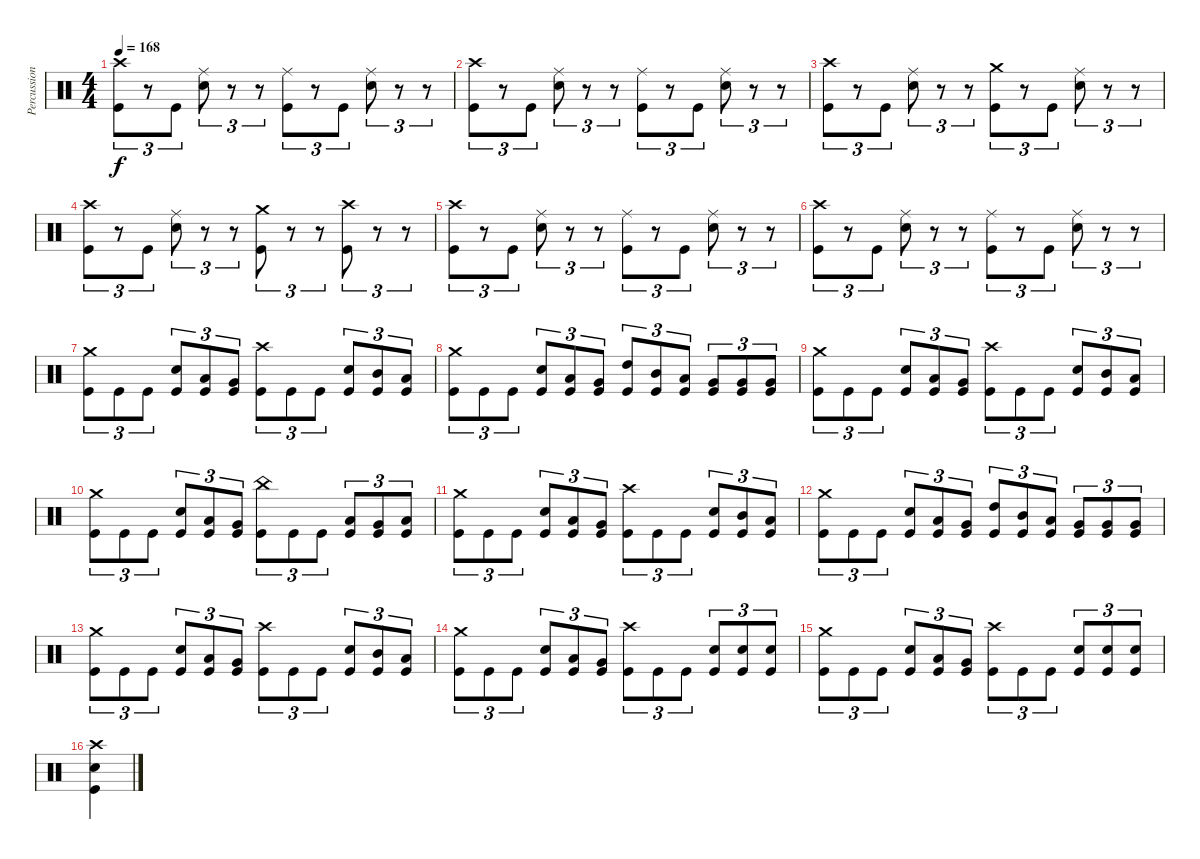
\track ("Percussion" "Percussion") {instrument percussion}
\staff {score}
\articulation defaults
\ts (4 4)
\tempo 168
\clef neutral
\ks c
("Crash high (hit)" "Kick (hit)").8{tu (3 2) dy f} r.8{tu (3 2)} "Kick (hit)".8{tu (3 2)} ("Ride (middle)" "Electric Snare (hit)").8{tu (3 2)} r.8{tu (3 2)} r.8{tu (3 2)} ("Ride (middle)" "Kick (hit)").8{tu (3 2)} r.8{tu (3 2)} "Kick (hit)".8{tu (3 2)} ("Ride (middle)" "Electric Snare (hit)").8{tu (3 2)} r.8{tu (3 2)} r.8{tu (3 2)} |
("Crash high (hit)" "Kick (hit)").8{tu (3 2)} r.8{tu (3 2)} "Kick (hit)".8{tu (3 2)} ("Ride (middle)" "Electric Snare (hit)").8{tu (3 2)} r.8{tu (3 2)} r.8{tu (3 2)} ("Ride (middle)" "Kick (hit)").8{tu (3 2)} r.8{tu (3 2)} "Kick (hit)".8{tu (3 2)} ("Ride (middle)" "Electric Snare (hit)").8{tu (3 2)} r.8{tu (3 2)} r.8{tu (3 2)} |
("Crash high (hit)" "Kick (hit)").8{tu (3 2)} r.8{tu (3 2)} "Kick (hit)".8{tu (3 2)} ("Ride (middle)" "Electric Snare (hit)").8{tu (3 2)} r.8{tu (3 2)} r.8{tu (3 2)} ("Crash medium (hit)" "Kick (hit)").8{tu (3 2)} r.8{tu (3 2)} "Kick (hit)".8{tu (3 2)} ("Ride (middle)" "Electric Snare (hit)").8{tu (3 2)} r.8{tu (3 2)} r.8{tu (3 2)} |
("Crash high (hit)" "Kick (hit)").8{tu (3 2)} r.8{tu (3 2)} "Kick (hit)".8{tu (3 2)} ("Ride (middle)" "Electric Snare (hit)").8{tu (3 2)} r.8{tu (3 2)} r.8{tu (3 2)} ("Crash medium (hit)" "Kick (hit)").8{tu (3 2)} r.8{tu (3 2)} r.8{tu (3 2)} ("Crash high (hit)" "Kick (hit)").8{tu (3 2)} r.8{tu (3 2)} r.8{tu (3 2)} |
("Crash high (hit)" "Kick (hit)").8{tu (3 2)} r.8{tu (3 2)} "Kick (hit)".8{tu (3 2)} ("Ride (middle)" "Electric Snare (hit)").8{tu (3 2)} r.8{tu (3 2)} r.8{tu (3 2)} ("Ride (middle)" "Kick (hit)").8{tu (3 2)} r.8{tu (3 2)} "Kick (hit)".8{tu (3 2)} ("Ride (middle)" "Electric Snare (hit)").8{tu (3 2)} r.8{tu (3 2)} r.8{tu (3 2)} |
("Crash high (hit)" "Kick (hit)").8{tu (3 2)} r.8{tu (3 2)} "Kick (hit)".8{tu (3 2)} ("Ride (middle)" "Electric Snare (hit)").8{tu (3 2)} r.8{tu (3 2)} r.8{tu (3 2)} ("Ride (middle)" "Kick (hit)").8{tu (3 2)} r.8{tu (3 2)} "Kick (hit)".8{tu (3 2)} ("Ride (middle)" "Electric Snare (hit)").8{tu (3 2)} r.8{tu (3 2)} r.8{tu (3 2)} |
("Crash medium (hit)" "Kick (hit)").8{tu (3 2)} "Kick (hit)".8{tu (3 2)} "Kick (hit)".8{tu (3 2)} ("Electric Snare (hit)" "Kick (hit)").8{tu (3 2)} ("Low Tom (hit)" "Kick (hit)").8{tu (3 2)} ("Very Low Tom (hit)" "Kick (hit)").8{tu (3 2)} ("Crash high (hit)" "Kick (hit)").8{tu (3 2)} "Kick (hit)".8{tu (3 2)} "Kick (hit)".8{tu (3 2)} ("Electric Snare (hit)" "Kick (hit)").8{tu (3 2)} ("Mid Tom (hit)" "Kick (hit)").8{tu (3 2)} ("Low Tom (hit)" "Kick (hit)").8{tu (3 2)} |
("Crash medium (hit)" "Kick (hit)").8{tu (3 2)} "Kick (hit)".8{tu (3 2)} "Kick (hit)".8{tu (3 2)} ("Electric Snare (hit)" "Kick (hit)").8{tu (3 2)} ("Low Tom (hit)" "Kick (hit)").8{tu (3 2)} ("Very Low Tom (hit)" "Kick (hit)").8{tu (3 2)} ("High Tom (hit)" "Kick (hit)").8{tu (3 2)} ("Mid Tom (hit)" "Kick (hit)").8{tu (3 2)} ("Low Tom (hit)" "Kick (hit)").8{tu (3 2)} ("Very Low Tom (hit)" "Kick (hit)").8{tu (3 2)} ("Very Low Tom (hit)" "Kick (hit)").8{tu (3 2)} ("Very Low Tom (hit)" "Kick (hit)").8{tu (3 2)} |
("Crash medium (hit)" "Kick (hit)").8{tu (3 2)} "Kick (hit)".8{tu (3 2)} "Kick (hit)".8{tu (3 2)} ("Electric Snare (hit)" "Kick (hit)").8{tu (3 2)} ("Low Tom (hit)" "Kick (hit)").8{tu (3 2)} ("Very Low Tom (hit)" "Kick (hit)").8{tu (3 2)} ("Crash high (hit)" "Kick (hit)").8{tu (3 2)} "Kick (hit)".8{tu (3 2)} "Kick (hit)".8{tu (3 2)} ("Electric Snare (hit)" "Kick (hit)").8{tu (3 2)} ("Mid Tom (hit)" "Kick (hit)").8{tu (3 2)} ("Low Tom (hit)" "Kick (hit)").8{tu (3 2)} |
("Crash medium (hit)" "Kick (hit)").8{tu (3 2)} "Kick (hit)".8{tu (3 2)} "Kick (hit)".8{tu (3 2)} ("Electric Snare (hit)" "Kick (hit)").8{tu (3 2)} ("Low Tom (hit)" "Kick (hit)").8{tu (3 2)} ("Very Low Tom (hit)" "Kick (hit)").8{tu (3 2)} ("China (hit)" "Kick (hit)").8{tu (3 2)} "Kick (hit)".8{tu (3 2)} "Kick (hit)".8{tu (3 2)} ("Low Tom (hit)" "Kick (hit)").8{tu (3 2)} ("Very Low Tom (hit)" "Kick (hit)").8{tu (3 2)} ("Low Floor Tom (hit)" "Kick (hit)").8{tu (3 2)} |
("Crash medium (hit)" "Kick (hit)").8{tu (3 2)} "Kick (hit)".8{tu (3 2)} "Kick (hit)".8{tu (3 2)} ("Electric Snare (hit)" "Kick (hit)").8{tu (3 2)} ("Low Tom (hit)" "Kick (hit)").8{tu (3 2)} ("Very Low Tom (hit)" "Kick (hit)").8{tu (3 2)} ("Crash high (hit)" "Kick (hit)").8{tu (3 2)} "Kick (hit)".8{tu (3 2)} "Kick (hit)".8{tu (3 2)} ("Electric Snare (hit)" "Kick (hit)").8{tu (3 2)} ("Mid Tom (hit)" "Kick (hit)").8{tu (3 2)} ("Low Tom (hit)" "Kick (hit)").8{tu (3 2)} |
("Crash medium (hit)" "Kick (hit)").8{tu (3 2)} "Kick (hit)".8{tu (3 2)} "Kick (hit)".8{tu (3 2)} ("Electric Snare (hit)" "Kick (hit)").8{tu (3 2)} ("Low Tom (hit)" "Kick (hit)").8{tu (3 2)} ("Very Low Tom (hit)" "Kick (hit)").8{tu (3 2)} ("High Tom (hit)" "Kick (hit)").8{tu (3 2)} ("Mid Tom (hit)" "Kick (hit)").8{tu (3 2)} ("Low Tom (hit)" "Kick (hit)").8{tu (3 2)} ("Very Low Tom (hit)" "Kick (hit)").8{tu (3 2)} ("Very Low Tom (hit)" "Kick (hit)").8{tu (3 2)} ("Very Low Tom (hit)" "Kick (hit)").8{tu (3 2)} |
("Crash medium (hit)" "Kick (hit)").8{tu (3 2)} "Kick (hit)".8{tu (3 2)} "Kick (hit)".8{tu (3 2)} ("Electric Snare (hit)" "Kick (hit)").8{tu (3 2)} ("Low Tom (hit)" "Kick (hit)").8{tu (3 2)} ("Very Low Tom (hit)" "Kick (hit)").8{tu (3 2)} ("Crash high (hit)" "Kick (hit)").8{tu (3 2)} "Kick (hit)".8{tu (3 2)} "Kick (hit)".8{tu (3 2)} ("Electric Snare (hit)" "Kick (hit)").8{tu (3 2)} ("Mid Tom (hit)" "Kick (hit)").8{tu (3 2)} ("Low Tom (hit)" "Kick (hit)").8{tu (3 2)} |
("Crash medium (hit)" "Kick (hit)").8{tu (3 2)} "Kick (hit)".8{tu (3 2)} "Kick (hit)".8{tu (3 2)} ("Electric Snare (hit)" "Kick (hit)").8{tu (3 2)} ("Low Tom (hit)" "Kick (hit)").8{tu (3 2)} ("Very Low Tom (hit)" "Kick (hit)").8{tu (3 2)} ("Crash high (hit)" "Kick (hit)").8{tu (3 2)} "Kick (hit)".8{tu (3 2)} "Kick (hit)".8{tu (3 2)} ("Electric Snare (hit)" "Kick (hit)").8{tu (3 2)} ("Electric Snare (hit)" "Kick (hit)").8{tu (3 2)} ("Electric Snare (hit)" "Kick (hit)").8{tu (3 2)} |
("Crash medium (hit)" "Kick (hit)").8{tu (3 2)} "Kick (hit)".8{tu (3 2)} "Kick (hit)".8{tu (3 2)} ("Electric Snare (hit)" "Kick (hit)").8{tu (3 2)} ("Low Tom (hit)" "Kick (hit)").8{tu (3 2)} ("Very Low Tom (hit)" "Kick (hit)").8{tu (3 2)} ("Crash high (hit)" "Kick (hit)").8{tu (3 2)} "Kick (hit)".8{tu (3 2)} "Kick (hit)".8{tu (3 2)} ("Electric Snare (hit)" "Kick (hit)").8{tu (3 2)} ("Electric Snare (hit)" "Kick (hit)").8{tu (3 2)} ("Electric Snare (hit)" "Kick (hit)").8{tu (3 2)} |
("Crash high (hit)" "Electric Snare (hit)" "Kick (hit)").4
